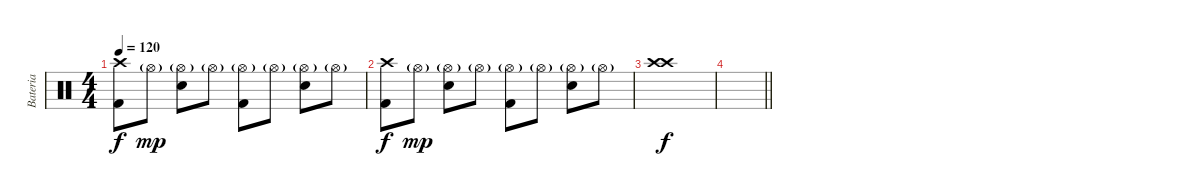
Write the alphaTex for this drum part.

\track ("Bateria" "Bateria") {instrument percussion}
\staff {score}
\articulation defaults
\ts (4 4)
\tempo 120
\clef neutral
\ks c
("Crash high (hit)" "Kick (hit) 2").8{dy f} "Hi-Hat (open)"{g}.8{dy mp} ("Hi-Hat (open)"{g} "Snare (hit) 2").8 "Hi-Hat (open)"{g}.8 ("Hi-Hat (open)"{g} "Kick (hit) 2").8 "Hi-Hat (open)"{g}.8 ("Hi-Hat (open)"{g} "Snare (hit) 2").8 "Hi-Hat (open)"{g}.8 |
("Crash high (hit)" "Kick (hit) 2").8{dy f} "Hi-Hat (open)"{g}.8{dy mp} ("Hi-Hat (open)"{g} "Snare (hit) 2").8 "Hi-Hat (open)"{g}.8 ("Hi-Hat (open)"{g} "Kick (hit) 2").8 "Hi-Hat (open)"{g}.8 ("Hi-Hat (open)"{g} "Snare (hit) 2").8 "Hi-Hat (open)"{g}.8 |
("Crash high (hit)" "Crash high (hit)").1{dy f} |
\barLineRight lightlight
